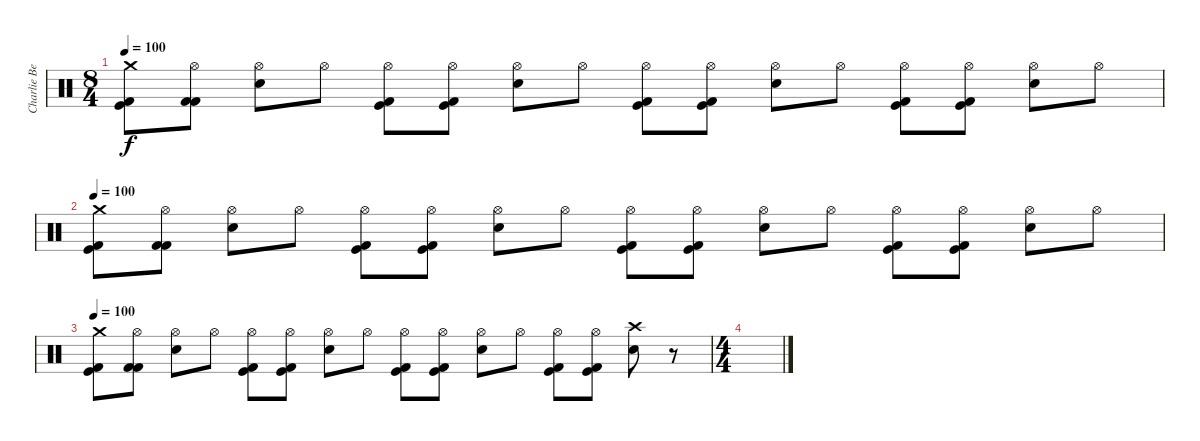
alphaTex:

\track ("Charlie Benante" "Charlie Be") {instrument percussion}
\staff {score}
\articulation defaults
\ts (8 4)
\tempo 100
\clef neutral
\ks c
("Crash medium (hit)" "Kick (hit)" "Kick (hit) 2").8{dy f} ("Hi-Hat (open)" "Kick (hit) 2" "Kick (hit) 2").8 ("Hi-Hat (open)" "Electric Snare (hit)").8 "Hi-Hat (open)".8 ("Hi-Hat (open)" "Kick (hit)" "Kick (hit) 2").8 ("Hi-Hat (open)" "Kick (hit)" "Kick (hit) 2").8 ("Hi-Hat (open)" "Electric Snare (hit)").8 "Hi-Hat (open)".8 ("Hi-Hat (open)" "Kick (hit)" "Kick (hit) 2").8 ("Hi-Hat (open)" "Kick (hit)" "Kick (hit) 2").8 ("Hi-Hat (open)" "Electric Snare (hit)").8 "Hi-Hat (open)".8 ("Hi-Hat (open)" "Kick (hit)" "Kick (hit) 2").8 ("Hi-Hat (open)" "Kick (hit)" "Kick (hit) 2").8 ("Hi-Hat (open)" "Electric Snare (hit)").8 "Hi-Hat (open)".8 |
\tempo 100
("Crash medium (hit)" "Kick (hit)" "Kick (hit) 2").8 ("Hi-Hat (open)" "Kick (hit) 2" "Kick (hit) 2").8 ("Hi-Hat (open)" "Electric Snare (hit)").8 "Hi-Hat (open)".8 ("Hi-Hat (open)" "Kick (hit)" "Kick (hit) 2").8 ("Hi-Hat (open)" "Kick (hit)" "Kick (hit) 2").8 ("Hi-Hat (open)" "Electric Snare (hit)").8 "Hi-Hat (open)".8 ("Hi-Hat (open)" "Kick (hit)" "Kick (hit) 2").8 ("Hi-Hat (open)" "Kick (hit)" "Kick (hit) 2").8 ("Hi-Hat (open)" "Electric Snare (hit)").8 "Hi-Hat (open)".8 ("Hi-Hat (open)" "Kick (hit)" "Kick (hit) 2").8 ("Hi-Hat (open)" "Kick (hit)" "Kick (hit) 2").8 ("Hi-Hat (open)" "Electric Snare (hit)").8 "Hi-Hat (open)".8 |
\tempo 100
("Crash medium (hit)" "Kick (hit)" "Kick (hit) 2").8 ("Hi-Hat (open)" "Kick (hit) 2" "Kick (hit) 2").8 ("Hi-Hat (open)" "Electric Snare (hit)").8 "Hi-Hat (open)".8 ("Hi-Hat (open)" "Kick (hit)" "Kick (hit) 2").8 ("Hi-Hat (open)" "Kick (hit)" "Kick (hit) 2").8 ("Hi-Hat (open)" "Electric Snare (hit)").8 "Hi-Hat (open)".8 ("Hi-Hat (open)" "Kick (hit)" "Kick (hit) 2").8 ("Hi-Hat (open)" "Kick (hit)" "Kick (hit) 2").8 ("Hi-Hat (open)" "Electric Snare (hit)").8 "Hi-Hat (open)".8 ("Hi-Hat (open)" "Kick (hit)" "Kick (hit) 2").8 ("Hi-Hat (open)" "Kick (hit)" "Kick (hit) 2").8 ("Crash high (hit)" "Electric Snare (hit)").8 r.8 |
\ts (4 4)
